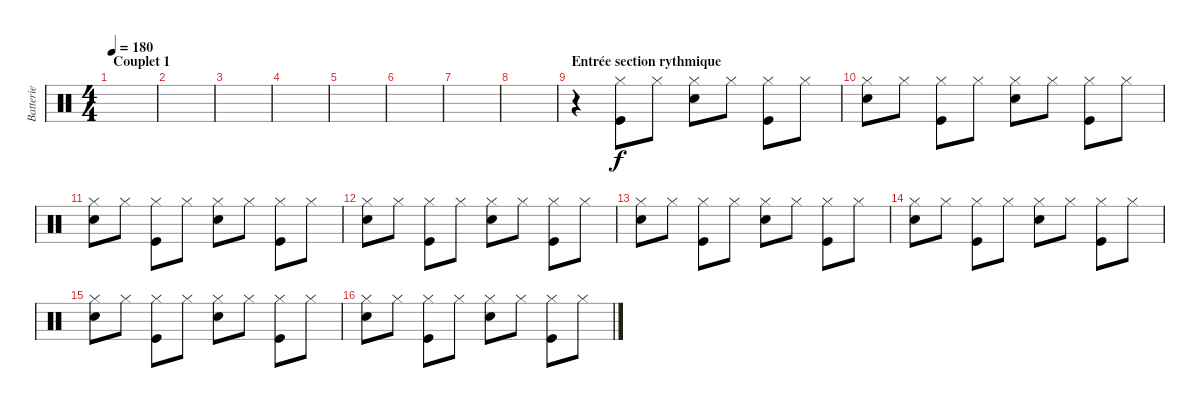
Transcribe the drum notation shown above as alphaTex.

\track ("Batterie" "Batterie") {instrument percussion}
\staff {score}
\articulation defaults
\ts (4 4)
\section ("" "Couplet 1")
\tempo 180
\clef neutral
\ks c
|
|
|
|
|
|
|
|
\section ("" "Entrée section rythmique")
r.4 ("Hi-Hat (closed)" "Kick (hit)").8 "Hi-Hat (closed)".8 ("Hi-Hat (closed)" "Snare (hit) 2").8 "Hi-Hat (closed)".8 ("Hi-Hat (closed)" "Kick (hit)").8 "Hi-Hat (closed)".8 |
("Hi-Hat (closed)" "Snare (hit) 2").8 "Hi-Hat (closed)".8 ("Hi-Hat (closed)" "Kick (hit)").8 "Hi-Hat (closed)".8 ("Hi-Hat (closed)" "Snare (hit) 2").8 "Hi-Hat (closed)".8 ("Hi-Hat (closed)" "Kick (hit)").8 "Hi-Hat (closed)".8 |
("Hi-Hat (closed)" "Snare (hit) 2").8 "Hi-Hat (closed)".8 ("Hi-Hat (closed)" "Kick (hit)").8 "Hi-Hat (closed)".8 ("Hi-Hat (closed)" "Snare (hit) 2").8 "Hi-Hat (closed)".8 ("Hi-Hat (closed)" "Kick (hit)").8 "Hi-Hat (closed)".8 |
("Hi-Hat (closed)" "Snare (hit) 2").8 "Hi-Hat (closed)".8 ("Hi-Hat (closed)" "Kick (hit)").8 "Hi-Hat (closed)".8 ("Hi-Hat (closed)" "Snare (hit) 2").8 "Hi-Hat (closed)".8 ("Hi-Hat (closed)" "Kick (hit)").8 "Hi-Hat (closed)".8 |
("Hi-Hat (closed)" "Snare (hit) 2").8 "Hi-Hat (closed)".8 ("Hi-Hat (closed)" "Kick (hit)").8 "Hi-Hat (closed)".8 ("Hi-Hat (closed)" "Snare (hit) 2").8 "Hi-Hat (closed)".8 ("Hi-Hat (closed)" "Kick (hit)").8 "Hi-Hat (closed)".8 |
("Hi-Hat (closed)" "Snare (hit) 2").8 "Hi-Hat (closed)".8 ("Hi-Hat (closed)" "Kick (hit)").8 "Hi-Hat (closed)".8 ("Hi-Hat (closed)" "Snare (hit) 2").8 "Hi-Hat (closed)".8 ("Hi-Hat (closed)" "Kick (hit)").8 "Hi-Hat (closed)".8 |
("Hi-Hat (closed)" "Snare (hit) 2").8 "Hi-Hat (closed)".8 ("Hi-Hat (closed)" "Kick (hit)").8 "Hi-Hat (closed)".8 ("Hi-Hat (closed)" "Snare (hit) 2").8 "Hi-Hat (closed)".8 ("Hi-Hat (closed)" "Kick (hit)").8 "Hi-Hat (closed)".8 |
("Hi-Hat (closed)" "Snare (hit) 2").8 "Hi-Hat (closed)".8 ("Hi-Hat (closed)" "Kick (hit)").8 "Hi-Hat (closed)".8 ("Hi-Hat (closed)" "Snare (hit) 2").8 "Hi-Hat (closed)".8 ("Hi-Hat (closed)" "Kick (hit)").8 "Hi-Hat (closed)".8
